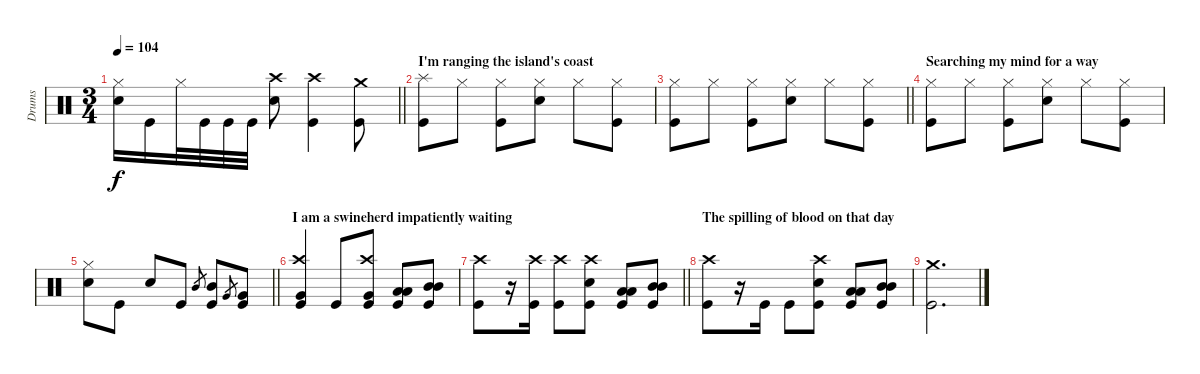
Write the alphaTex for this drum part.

\track ("Drums" "Drums") {instrument percussion}
\staff {score}
\articulation defaults
\ts (3 4)
\tempo 104
\clef neutral
\barLineRight lightlight
\ks c
("Hi-Hat (closed)" "Snare (hit) 2").16{dy f} "Kick (hit)".16 "Hi-Hat (closed)".32 "Kick (hit)".32 "Kick (hit)".32 "Kick (hit)".32 ("Crash high (hit)" "Snare (hit) 2").8 ("Crash high (hit)" "Kick (hit)").4 ("Crash medium (hit)" "Kick (hit)").8 |
\section ("" "I'm ranging the island's coast")
("Splash (hit)" "Kick (hit)").8 "Hi-Hat (closed)".8 ("Hi-Hat (closed)" "Kick (hit)").8 ("Hi-Hat (closed)" "Snare (hit) 2").8 "Hi-Hat (closed)".8 ("Hi-Hat (closed)" "Kick (hit)").8 |
\barLineRight lightlight
("Hi-Hat (closed)" "Kick (hit)").8 "Hi-Hat (closed)".8 ("Hi-Hat (closed)" "Kick (hit)").8 ("Hi-Hat (closed)" "Snare (hit) 2").8 "Hi-Hat (closed)".8 ("Hi-Hat (closed)" "Kick (hit)").8 |
\section ("" "Searching my mind for a way")
("Hi-Hat (closed)" "Kick (hit)").8 "Hi-Hat (closed)".8 ("Hi-Hat (closed)" "Kick (hit)").8 ("Hi-Hat (closed)" "Snare (hit) 2").8 "Hi-Hat (closed)".8 ("Hi-Hat (closed)" "Kick (hit)").8 |
\barLineRight lightlight
("Hi-Hat (closed)" "Snare (hit) 2").8 "Kick (hit)".8 "Snare (hit) 2".8 "Kick (hit)".8 "Mid Tom (hit)".8{gr} ("Mid Tom (hit)" "Kick (hit)").8 "Very Low Tom (hit)".8{gr} ("Very Low Tom (hit)" "Kick (hit)").8 |
\section ("" "I am a swineherd impatiently waiting")
("Crash high (hit)" "Very Low Tom (hit)" "Kick (hit)").4 "Kick (hit)".8 ("Crash high (hit)" "Very Low Tom (hit)" "Kick (hit)").8 ("Low Tom (hit)" "Low Tom (hit)" "Kick (hit)").8 ("Mid Tom (hit)" "Mid Tom (hit)" "Kick (hit)").8 |
\barLineRight lightlight
("Crash high (hit)" "Kick (hit)").8 r.16 ("Crash high (hit)" "Kick (hit)").16 ("Crash high (hit)" "Kick (hit)").8 ("Crash high (hit)" "Snare (hit) 2" "Kick (hit)").8 ("Low Tom (hit)" "Low Tom (hit)" "Kick (hit)").8 ("Mid Tom (hit)" "Mid Tom (hit)" "Kick (hit)").8 |
\section ("" "The spilling of blood on that day")
("Crash high (hit)" "Kick (hit)").8 r.16 "Kick (hit)".16 "Kick (hit)".8 ("Crash high (hit)" "Snare (hit) 2" "Kick (hit)").8 ("Low Tom (hit)" "Low Tom (hit)" "Kick (hit)").8 ("Mid Tom (hit)" "Mid Tom (hit)" "Kick (hit)").8 |
("Crash medium (hit)" "Kick (hit)").2{d}
